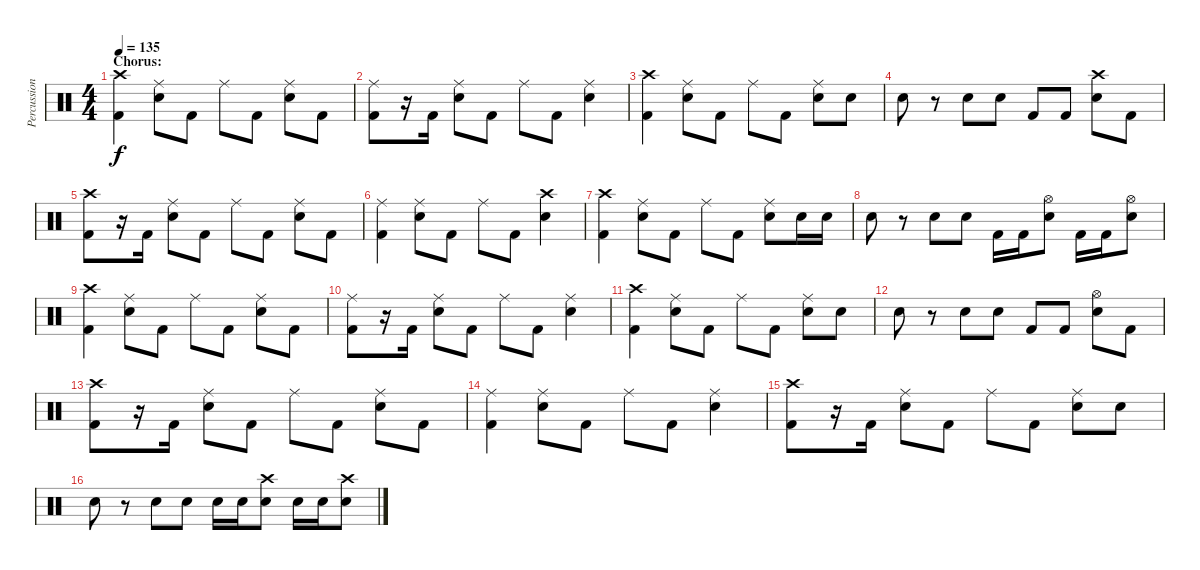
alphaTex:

\track ("Percussion" "Percussion") {instrument percussion}
\staff {score}
\articulation defaults
\ts (4 4)
\section ("" "Chorus:")
\tempo 135
\clef neutral
\ks c
("Crash high (hit)" "Kick (hit) 2").4{dy f} ("Ride (middle)" "Electric Snare (hit)").8 "Kick (hit) 2".8 "Ride (middle)".8 "Kick (hit) 2".8 ("Ride (middle)" "Electric Snare (hit)").8 "Kick (hit) 2".8 |
("Ride (middle)" "Kick (hit) 2").8 r.16 "Kick (hit) 2".16 ("Ride (middle)" "Electric Snare (hit)").8 "Kick (hit) 2".8 "Ride (middle)".8 "Kick (hit) 2".8 ("Ride (middle)" "Electric Snare (hit)").4 |
("Crash high (hit)" "Kick (hit) 2").4 ("Ride (middle)" "Electric Snare (hit)").8 "Kick (hit) 2".8 "Ride (middle)".8 "Kick (hit) 2".8 ("Ride (middle)" "Electric Snare (hit)").8 "Electric Snare (hit)".8 |
"Electric Snare (hit)".8 r.8 "Electric Snare (hit)".8 "Electric Snare (hit)".8 "Kick (hit) 2".8 "Kick (hit) 2".8 ("Crash high (hit)" "Electric Snare (hit)").8 "Kick (hit) 2".8 |
("Crash high (hit)" "Kick (hit) 2").8 r.16 "Kick (hit) 2".16 ("Ride (middle)" "Electric Snare (hit)").8 "Kick (hit) 2".8 "Ride (middle)".8 "Kick (hit) 2".8 ("Ride (middle)" "Electric Snare (hit)").8 "Kick (hit) 2".8 |
("Ride (middle)" "Kick (hit) 2").4 ("Ride (middle)" "Electric Snare (hit)").8 "Kick (hit) 2".8 "Ride (middle)".8 "Kick (hit) 2".8 ("Crash high (hit)" "Electric Snare (hit)").4 |
("Crash high (hit)" "Kick (hit) 2").4 ("Ride (middle)" "Electric Snare (hit)").8 "Kick (hit) 2".8 "Ride (middle)".8 "Kick (hit) 2".8 ("Ride (middle)" "Electric Snare (hit)").8 "Electric Snare (hit)".16 "Electric Snare (hit)".16 |
"Electric Snare (hit)".8 r.8 "Electric Snare (hit)".8 "Electric Snare (hit)".8 "Kick (hit) 2".16 "Kick (hit) 2".16 ("Hi-Hat (open)" "Electric Snare (hit)").8 "Kick (hit) 2".16 "Kick (hit) 2".16 ("Hi-Hat (open)" "Electric Snare (hit)").8 |
("Crash high (hit)" "Kick (hit) 2").4 ("Ride (middle)" "Electric Snare (hit)").8 "Kick (hit) 2".8 "Ride (middle)".8 "Kick (hit) 2".8 ("Ride (middle)" "Electric Snare (hit)").8 "Kick (hit) 2".8 |
("Ride (middle)" "Kick (hit) 2").8 r.16 "Kick (hit) 2".16 ("Ride (middle)" "Electric Snare (hit)").8 "Kick (hit) 2".8 "Ride (middle)".8 "Kick (hit) 2".8 ("Ride (middle)" "Electric Snare (hit)").4 |
("Crash high (hit)" "Kick (hit) 2").4 ("Ride (middle)" "Electric Snare (hit)").8 "Kick (hit) 2".8 "Ride (middle)".8 "Kick (hit) 2".8 ("Ride (middle)" "Electric Snare (hit)").8 "Electric Snare (hit)".8 |
"Electric Snare (hit)".8 r.8 "Electric Snare (hit)".8 "Electric Snare (hit)".8 "Kick (hit) 2".8 "Kick (hit) 2".8 ("Hi-Hat (open)" "Electric Snare (hit)").8 "Kick (hit) 2".8 |
("Crash high (hit)" "Kick (hit) 2").8 r.16 "Kick (hit) 2".16 ("Ride (middle)" "Electric Snare (hit)").8 "Kick (hit) 2".8 "Ride (middle)".8 "Kick (hit) 2".8 ("Ride (middle)" "Electric Snare (hit)").8 "Kick (hit) 2".8 |
("Ride (middle)" "Kick (hit) 2").4 ("Ride (middle)" "Electric Snare (hit)").8 "Kick (hit) 2".8 "Ride (middle)".8 "Kick (hit) 2".8 ("Ride (middle)" "Electric Snare (hit)").4 |
("Crash high (hit)" "Kick (hit) 2").8 r.16 "Kick (hit) 2".16 ("Ride (middle)" "Electric Snare (hit)").8 "Kick (hit) 2".8 "Ride (middle)".8 "Kick (hit) 2".8 ("Ride (middle)" "Electric Snare (hit)").8 "Electric Snare (hit)".8 |
"Electric Snare (hit)".8 r.8 "Electric Snare (hit)".8 "Electric Snare (hit)".8 "Electric Snare (hit)".16 "Electric Snare (hit)".16 ("Crash high (hit)" "Electric Snare (hit)").8 "Electric Snare (hit)".16 "Electric Snare (hit)".16 ("Crash high (hit)" "Electric Snare (hit)").8
